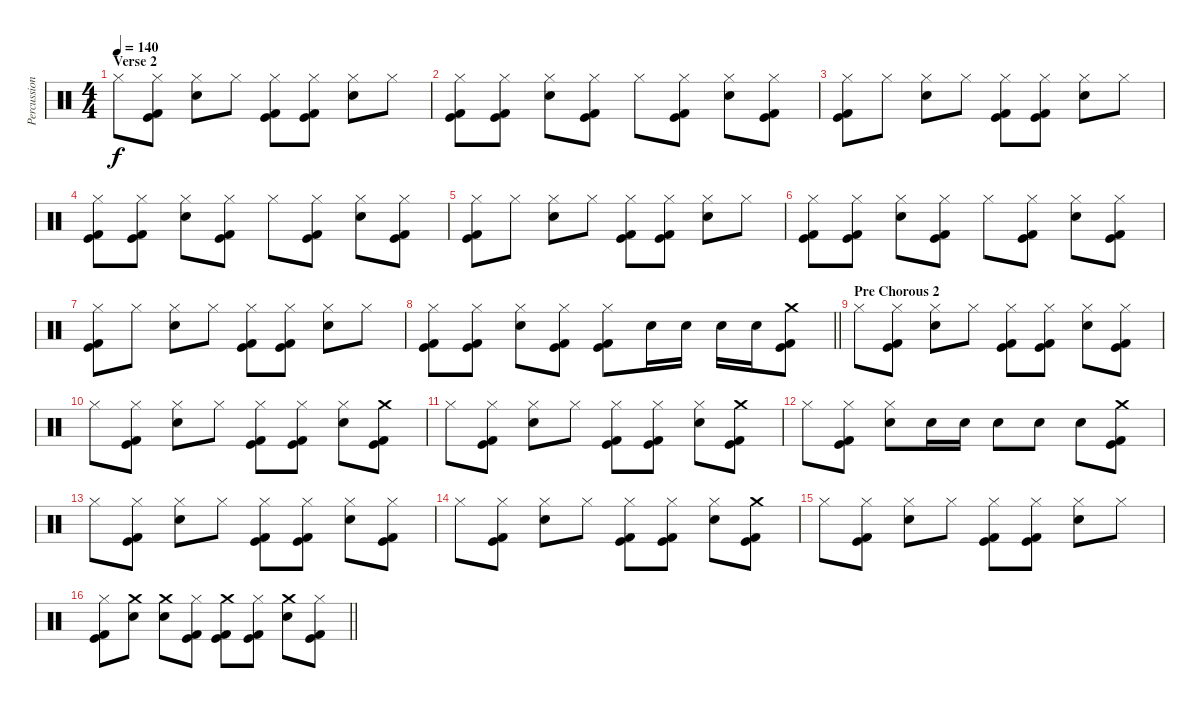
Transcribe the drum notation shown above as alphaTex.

\track ("Percussion" "Percussion") {instrument percussion}
\staff {score}
\articulation defaults
\ts (4 4)
\section ("" "Verse 2")
\tempo 140
\clef neutral
\ks c "Hi-Hat (closed)".8{dy f}
("Hi-Hat (closed)" "Kick (hit)" "Kick (hit) 2").8 ("Hi-Hat (closed)" "Electric Snare (hit)").8 "Hi-Hat (closed)".8 ("Hi-Hat (closed)" "Kick (hit)" "Kick (hit) 2").8 ("Hi-Hat (closed)" "Kick (hit)" "Kick (hit) 2").8 ("Hi-Hat (closed)" "Electric Snare (hit)").8 "Hi-Hat (closed)".8 |
("Hi-Hat (closed)" "Kick (hit)" "Kick (hit) 2").8 ("Hi-Hat (closed)" "Kick (hit)" "Kick (hit) 2").8 ("Hi-Hat (closed)" "Electric Snare (hit)").8 ("Hi-Hat (closed)" "Kick (hit)" "Kick (hit) 2").8 "Hi-Hat (closed)".8 ("Hi-Hat (closed)" "Kick (hit)" "Kick (hit) 2").8 ("Hi-Hat (closed)" "Electric Snare (hit)").8 ("Hi-Hat (closed)" "Kick (hit)" "Kick (hit) 2").8 |
("Hi-Hat (closed)" "Kick (hit)" "Kick (hit) 2").8 "Hi-Hat (closed)".8 ("Hi-Hat (closed)" "Electric Snare (hit)").8 "Hi-Hat (closed)".8 ("Hi-Hat (closed)" "Kick (hit)" "Kick (hit) 2").8 ("Hi-Hat (closed)" "Kick (hit)" "Kick (hit) 2").8 ("Hi-Hat (closed)" "Electric Snare (hit)").8 "Hi-Hat (closed)".8 |
("Hi-Hat (closed)" "Kick (hit)" "Kick (hit) 2").8 ("Hi-Hat (closed)" "Kick (hit)" "Kick (hit) 2").8 ("Hi-Hat (closed)" "Electric Snare (hit)").8 ("Hi-Hat (closed)" "Kick (hit)" "Kick (hit) 2").8 "Hi-Hat (closed)".8 ("Hi-Hat (closed)" "Kick (hit)" "Kick (hit) 2").8 ("Hi-Hat (closed)" "Electric Snare (hit)").8 ("Hi-Hat (closed)" "Kick (hit)" "Kick (hit) 2").8 |
("Hi-Hat (closed)" "Kick (hit)" "Kick (hit) 2").8 "Hi-Hat (closed)".8 ("Hi-Hat (closed)" "Electric Snare (hit)").8 "Hi-Hat (closed)".8 ("Hi-Hat (closed)" "Kick (hit)" "Kick (hit) 2").8 ("Hi-Hat (closed)" "Kick (hit)" "Kick (hit) 2").8 ("Hi-Hat (closed)" "Electric Snare (hit)").8 "Hi-Hat (closed)".8 |
("Hi-Hat (closed)" "Kick (hit)" "Kick (hit) 2").8 ("Hi-Hat (closed)" "Kick (hit)" "Kick (hit) 2").8 ("Hi-Hat (closed)" "Electric Snare (hit)").8 ("Hi-Hat (closed)" "Kick (hit)" "Kick (hit) 2").8 "Hi-Hat (closed)".8 ("Hi-Hat (closed)" "Kick (hit)" "Kick (hit) 2").8 ("Hi-Hat (closed)" "Electric Snare (hit)").8 ("Hi-Hat (closed)" "Kick (hit)" "Kick (hit) 2").8 |
("Hi-Hat (closed)" "Kick (hit)" "Kick (hit) 2").8 "Hi-Hat (closed)".8 ("Hi-Hat (closed)" "Electric Snare (hit)").8 "Hi-Hat (closed)".8 ("Hi-Hat (closed)" "Kick (hit)" "Kick (hit) 2").8 ("Hi-Hat (closed)" "Kick (hit)" "Kick (hit) 2").8 ("Hi-Hat (closed)" "Electric Snare (hit)").8 "Hi-Hat (closed)".8 |
\barLineRight lightlight
("Hi-Hat (closed)" "Kick (hit)" "Kick (hit) 2").8 ("Hi-Hat (closed)" "Kick (hit)" "Kick (hit) 2").8 ("Hi-Hat (closed)" "Electric Snare (hit)").8 ("Hi-Hat (closed)" "Kick (hit)" "Kick (hit) 2").8 ("Hi-Hat (closed)" "Kick (hit)" "Kick (hit) 2").8 "Electric Snare (hit)".16 "Electric Snare (hit)".16 "Electric Snare (hit)".16 "Electric Snare (hit)".16 ("Crash medium (hit)" "Kick (hit)" "Kick (hit) 2").8 |
\section ("" "Pre Chorous 2")
"Hi-Hat (closed)".8 ("Hi-Hat (closed)" "Kick (hit)" "Kick (hit) 2").8 ("Hi-Hat (closed)" "Electric Snare (hit)").8 "Hi-Hat (closed)".8 ("Hi-Hat (closed)" "Kick (hit)" "Kick (hit) 2").8 ("Hi-Hat (closed)" "Kick (hit)" "Kick (hit) 2").8 ("Hi-Hat (closed)" "Electric Snare (hit)").8 ("Hi-Hat (closed)" "Kick (hit)" "Kick (hit) 2").8 |
"Hi-Hat (closed)".8 ("Hi-Hat (closed)" "Kick (hit)" "Kick (hit) 2").8 ("Hi-Hat (closed)" "Electric Snare (hit)").8 "Hi-Hat (closed)".8 ("Hi-Hat (closed)" "Kick (hit)" "Kick (hit) 2").8 ("Hi-Hat (closed)" "Kick (hit)" "Kick (hit) 2").8 ("Hi-Hat (closed)" "Electric Snare (hit)").8 ("Crash medium (hit)" "Kick (hit)" "Kick (hit) 2").8 |
"Hi-Hat (closed)".8 ("Hi-Hat (closed)" "Kick (hit)" "Kick (hit) 2").8 ("Hi-Hat (closed)" "Electric Snare (hit)").8 "Hi-Hat (closed)".8 ("Hi-Hat (closed)" "Kick (hit)" "Kick (hit) 2").8 ("Hi-Hat (closed)" "Kick (hit)" "Kick (hit) 2").8 ("Hi-Hat (closed)" "Electric Snare (hit)").8 ("Crash medium (hit)" "Kick (hit)" "Kick (hit) 2").8 |
"Hi-Hat (closed)".8 ("Hi-Hat (closed)" "Kick (hit)" "Kick (hit) 2").8 ("Hi-Hat (closed)" "Electric Snare (hit)").8 "Electric Snare (hit)".16 "Electric Snare (hit)".16 "Electric Snare (hit)".8 "Electric Snare (hit)".8 "Electric Snare (hit)".8 ("Crash medium (hit)" "Kick (hit)" "Kick (hit) 2").8 |
"Hi-Hat (closed)".8 ("Hi-Hat (closed)" "Kick (hit)" "Kick (hit) 2").8 ("Hi-Hat (closed)" "Electric Snare (hit)").8 "Hi-Hat (closed)".8 ("Hi-Hat (closed)" "Kick (hit)" "Kick (hit) 2").8 ("Hi-Hat (closed)" "Kick (hit)" "Kick (hit) 2").8 ("Hi-Hat (closed)" "Electric Snare (hit)").8 ("Hi-Hat (closed)" "Kick (hit)" "Kick (hit) 2").8 |
"Hi-Hat (closed)".8 ("Hi-Hat (closed)" "Kick (hit)" "Kick (hit) 2").8 ("Hi-Hat (closed)" "Electric Snare (hit)").8 "Hi-Hat (closed)".8 ("Hi-Hat (closed)" "Kick (hit)" "Kick (hit) 2").8 ("Hi-Hat (closed)" "Kick (hit)" "Kick (hit) 2").8 ("Hi-Hat (closed)" "Electric Snare (hit)").8 ("Crash medium (hit)" "Kick (hit)" "Kick (hit) 2").8 |
"Hi-Hat (closed)".8 ("Hi-Hat (closed)" "Kick (hit)" "Kick (hit) 2").8 ("Hi-Hat (closed)" "Electric Snare (hit)").8 "Hi-Hat (closed)".8 ("Hi-Hat (closed)" "Kick (hit)" "Kick (hit) 2").8 ("Hi-Hat (closed)" "Kick (hit)" "Kick (hit) 2").8 ("Hi-Hat (closed)" "Electric Snare (hit)").8 "Hi-Hat (closed)".8 |
\barLineRight lightlight
("Hi-Hat (closed)" "Kick (hit)" "Kick (hit) 2").8 ("Crash medium (hit)" "Electric Snare (hit)").8 ("Crash medium (hit)" "Electric Snare (hit)").8 ("Hi-Hat (closed)" "Kick (hit)" "Kick (hit) 2").8 ("Crash medium (hit)" "Kick (hit)" "Kick (hit) 2").8 ("Hi-Hat (closed)" "Kick (hit)" "Kick (hit) 2").8 ("Crash medium (hit)" "Electric Snare (hit)").8 ("Hi-Hat (closed)" "Kick (hit)" "Kick (hit) 2").8
